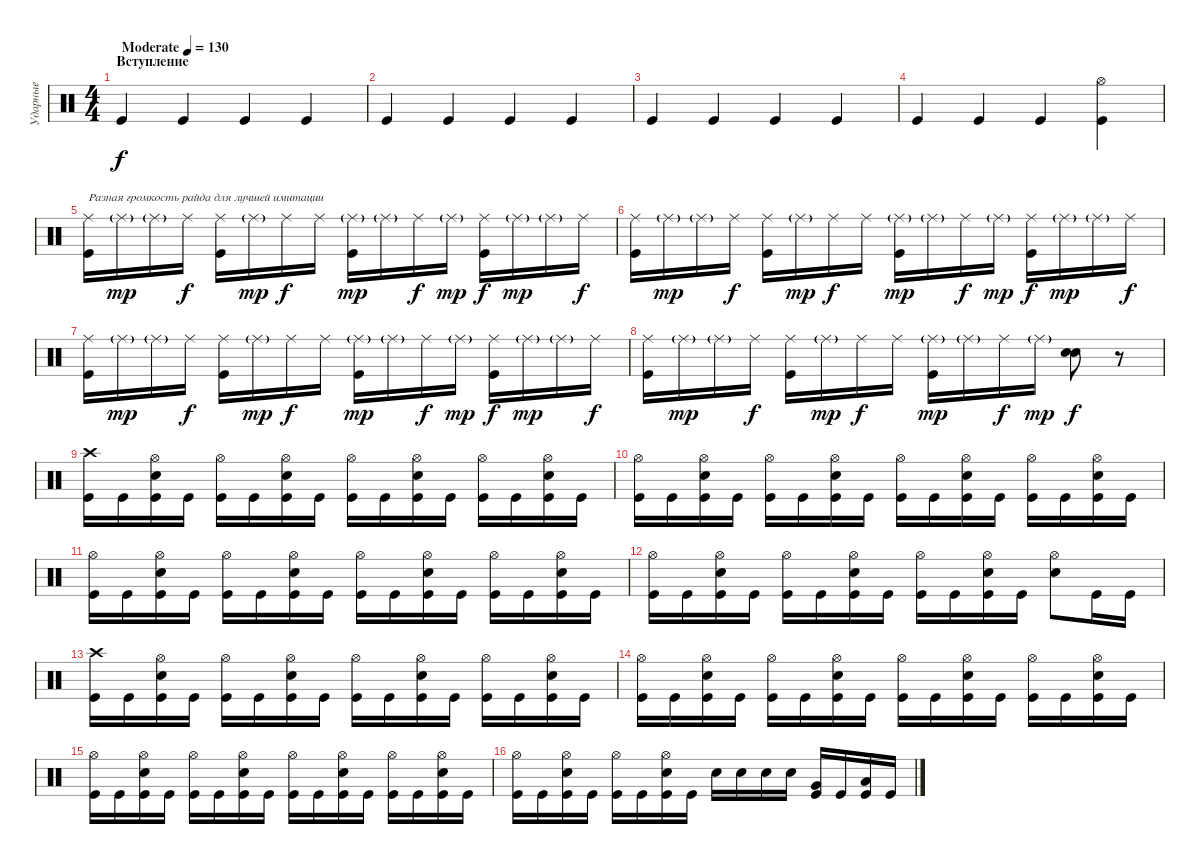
\track ("Ударные" "Ударные") {instrument percussion}
\staff {score}
\articulation defaults
\ts (4 4)
\section ("" "Вступление")
\tempo (130 "Moderate")
\clef neutral
\ks c "Kick (hit)".4{dy f} "Kick (hit)".4 "Kick (hit)".4 "Kick (hit)".4
|
"Kick (hit)".4 "Kick (hit)".4 "Kick (hit)".4 "Kick (hit)".4 |
"Kick (hit)".4 "Kick (hit)".4 "Kick (hit)".4 "Kick (hit)".4 |
"Kick (hit)".4 "Kick (hit)".4 "Kick (hit)".4 ("Kick (hit)" "Hi-Hat (open)").4 |
("Kick (hit)" "Ride (middle)").16{txt "Разная громкость райда для лучшей имитации"} "Ride (middle)"{g}.16{dy mp} "Ride (middle)"{g}.16 "Ride (middle)".16{dy f} ("Kick (hit)" "Ride (middle)").16 "Ride (middle)"{g}.16{dy mp} "Ride (middle)".16{dy f} "Ride (middle)".16 ("Kick (hit)" "Ride (middle)"{g}).16{dy mp} "Ride (middle)"{g}.16 "Ride (middle)".16{dy f} "Ride (middle)"{g}.16{dy mp} ("Kick (hit)" "Ride (middle)").16{dy f} "Ride (middle)"{g}.16{dy mp} "Ride (middle)"{g}.16 "Ride (middle)".16{dy f} |
("Kick (hit)" "Ride (middle)").16 "Ride (middle)"{g}.16{dy mp} "Ride (middle)"{g}.16 "Ride (middle)".16{dy f} ("Kick (hit)" "Ride (middle)").16 "Ride (middle)"{g}.16{dy mp} "Ride (middle)".16{dy f} "Ride (middle)".16 ("Kick (hit)" "Ride (middle)"{g}).16{dy mp} "Ride (middle)"{g}.16 "Ride (middle)".16{dy f} "Ride (middle)"{g}.16{dy mp} ("Kick (hit)" "Ride (middle)").16{dy f} "Ride (middle)"{g}.16{dy mp} "Ride (middle)"{g}.16 "Ride (middle)".16{dy f} |
("Kick (hit)" "Ride (middle)").16 "Ride (middle)"{g}.16{dy mp} "Ride (middle)"{g}.16 "Ride (middle)".16{dy f} ("Kick (hit)" "Ride (middle)").16 "Ride (middle)"{g}.16{dy mp} "Ride (middle)".16{dy f} "Ride (middle)".16 ("Kick (hit)" "Ride (middle)"{g}).16{dy mp} "Ride (middle)"{g}.16 "Ride (middle)".16{dy f} "Ride (middle)"{g}.16{dy mp} ("Kick (hit)" "Ride (middle)").16{dy f} "Ride (middle)"{g}.16{dy mp} "Ride (middle)"{g}.16 "Ride (middle)".16{dy f} |
("Kick (hit)" "Ride (middle)").16 "Ride (middle)"{g}.16{dy mp} "Ride (middle)"{g}.16 "Ride (middle)".16{dy f} ("Kick (hit)" "Ride (middle)").16 "Ride (middle)"{g}.16{dy mp} "Ride (middle)".16{dy f} "Ride (middle)".16 ("Kick (hit)" "Ride (middle)"{g}).16{dy mp} "Ride (middle)"{g}.16 "Ride (middle)".16{dy f} "Ride (middle)"{g}.16{dy mp} ("Snare (hit) 2" "Snare (hit) 2").8{dy f} r.8 |
("Kick (hit)" "Crash high (hit)").16 "Kick (hit)".16 ("Kick (hit)" "Snare (hit) 2" "Hi-Hat (open)").16 "Kick (hit)".16 ("Kick (hit)" "Hi-Hat (open)").16 "Kick (hit)".16 ("Kick (hit)" "Snare (hit) 2" "Hi-Hat (open)").16 "Kick (hit)".16 ("Kick (hit)" "Hi-Hat (open)").16 "Kick (hit)".16 ("Kick (hit)" "Snare (hit) 2" "Hi-Hat (open)").16 "Kick (hit)".16 ("Kick (hit)" "Hi-Hat (open)").16 "Kick (hit)".16 ("Kick (hit)" "Snare (hit) 2" "Hi-Hat (open)").16 "Kick (hit)".16 |
("Kick (hit)" "Hi-Hat (open)").16 "Kick (hit)".16 ("Kick (hit)" "Snare (hit) 2" "Hi-Hat (open)").16 "Kick (hit)".16 ("Kick (hit)" "Hi-Hat (open)").16 "Kick (hit)".16 ("Kick (hit)" "Snare (hit) 2" "Hi-Hat (open)").16 "Kick (hit)".16 ("Kick (hit)" "Hi-Hat (open)").16 "Kick (hit)".16 ("Kick (hit)" "Snare (hit) 2" "Hi-Hat (open)").16 "Kick (hit)".16 ("Kick (hit)" "Hi-Hat (open)").16 "Kick (hit)".16 ("Kick (hit)" "Snare (hit) 2" "Hi-Hat (open)").16 "Kick (hit)".16 |
("Kick (hit)" "Hi-Hat (open)").16 "Kick (hit)".16 ("Kick (hit)" "Snare (hit) 2" "Hi-Hat (open)").16 "Kick (hit)".16 ("Kick (hit)" "Hi-Hat (open)").16 "Kick (hit)".16 ("Kick (hit)" "Snare (hit) 2" "Hi-Hat (open)").16 "Kick (hit)".16 ("Kick (hit)" "Hi-Hat (open)").16 "Kick (hit)".16 ("Kick (hit)" "Snare (hit) 2" "Hi-Hat (open)").16 "Kick (hit)".16 ("Kick (hit)" "Hi-Hat (open)").16 "Kick (hit)".16 ("Kick (hit)" "Snare (hit) 2" "Hi-Hat (open)").16 "Kick (hit)".16 |
("Kick (hit)" "Hi-Hat (open)").16 "Kick (hit)".16 ("Kick (hit)" "Snare (hit) 2" "Hi-Hat (open)").16 "Kick (hit)".16 ("Kick (hit)" "Hi-Hat (open)").16 "Kick (hit)".16 ("Kick (hit)" "Snare (hit) 2" "Hi-Hat (open)").16 "Kick (hit)".16 ("Kick (hit)" "Hi-Hat (open)").16 "Kick (hit)".16 ("Kick (hit)" "Snare (hit) 2" "Hi-Hat (open)").16 "Kick (hit)".16 ("Snare (hit) 2" "Hi-Hat (open)").8 "Kick (hit)".16 "Kick (hit)".16 |
("Kick (hit)" "Crash high (hit)").16 "Kick (hit)".16 ("Kick (hit)" "Snare (hit) 2" "Hi-Hat (open)").16 "Kick (hit)".16 ("Kick (hit)" "Hi-Hat (open)").16 "Kick (hit)".16 ("Kick (hit)" "Snare (hit) 2" "Hi-Hat (open)").16 "Kick (hit)".16 ("Kick (hit)" "Hi-Hat (open)").16 "Kick (hit)".16 ("Kick (hit)" "Snare (hit) 2" "Hi-Hat (open)").16 "Kick (hit)".16 ("Kick (hit)" "Hi-Hat (open)").16 "Kick (hit)".16 ("Kick (hit)" "Snare (hit) 2" "Hi-Hat (open)").16 "Kick (hit)".16 |
("Kick (hit)" "Hi-Hat (open)").16 "Kick (hit)".16 ("Kick (hit)" "Snare (hit) 2" "Hi-Hat (open)").16 "Kick (hit)".16 ("Kick (hit)" "Hi-Hat (open)").16 "Kick (hit)".16 ("Kick (hit)" "Snare (hit) 2" "Hi-Hat (open)").16 "Kick (hit)".16 ("Kick (hit)" "Hi-Hat (open)").16 "Kick (hit)".16 ("Kick (hit)" "Snare (hit) 2" "Hi-Hat (open)").16 "Kick (hit)".16 ("Kick (hit)" "Hi-Hat (open)").16 "Kick (hit)".16 ("Kick (hit)" "Snare (hit) 2" "Hi-Hat (open)").16 "Kick (hit)".16 |
("Kick (hit)" "Hi-Hat (open)").16 "Kick (hit)".16 ("Kick (hit)" "Snare (hit) 2" "Hi-Hat (open)").16 "Kick (hit)".16 ("Kick (hit)" "Hi-Hat (open)").16 "Kick (hit)".16 ("Kick (hit)" "Snare (hit) 2" "Hi-Hat (open)").16 "Kick (hit)".16 ("Kick (hit)" "Hi-Hat (open)").16 "Kick (hit)".16 ("Kick (hit)" "Snare (hit) 2" "Hi-Hat (open)").16 "Kick (hit)".16 ("Kick (hit)" "Hi-Hat (open)").16 "Kick (hit)".16 ("Kick (hit)" "Snare (hit) 2" "Hi-Hat (open)").16 "Kick (hit)".16 |
("Kick (hit)" "Hi-Hat (open)").16 "Kick (hit)".16 ("Kick (hit)" "Snare (hit) 2" "Hi-Hat (open)").16 "Kick (hit)".16 ("Kick (hit)" "Hi-Hat (open)").16 "Kick (hit)".16 ("Kick (hit)" "Snare (hit) 2" "Hi-Hat (open)").16 "Kick (hit)".16 "Snare (hit) 2".16 "Snare (hit) 2".16 "Snare (hit) 2".16 "Snare (hit) 2".16 ("Kick (hit)" "Very Low Tom (hit)").16 "Kick (hit)".16 ("Kick (hit)" "Low Floor Tom (hit)").16 "Kick (hit)".16
